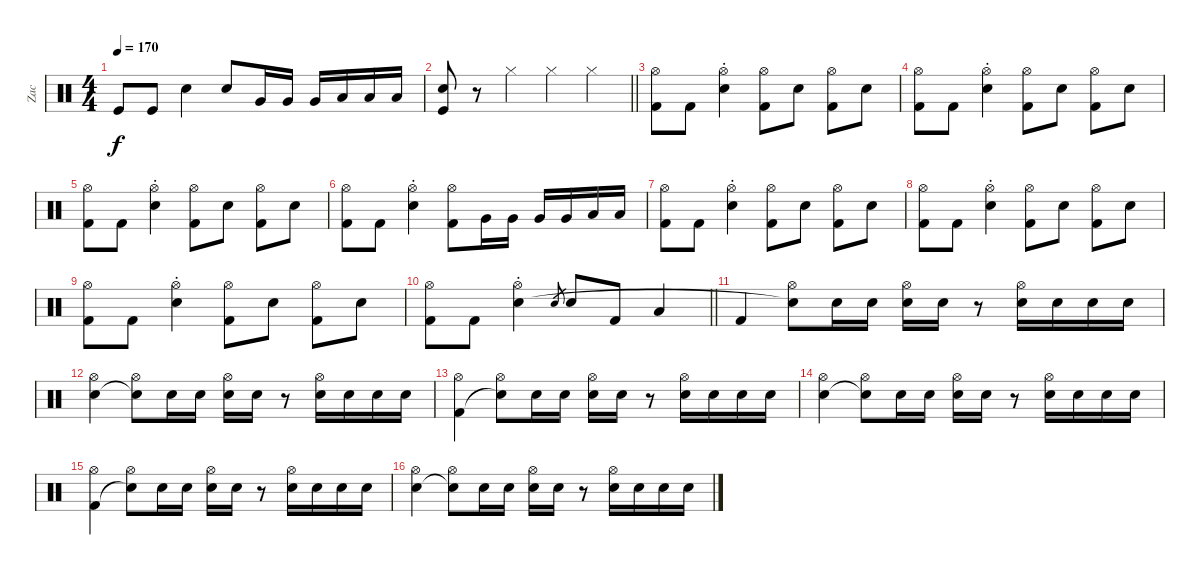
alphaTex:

\track ("Zac" "Zac") {instrument percussion}
\staff {score}
\articulation defaults
\ts (4 4)
\tempo 170
\clef neutral
\ks c "Kick (hit)".8{dy f} "Kick (hit)".8 "Electric Snare (hit)".4 "Electric Snare (hit)".8 "Very Low Tom (hit)".16 "Very Low Tom (hit)".16 "Very Low Tom (hit)".16 "Low Floor Tom (hit)".16 "Low Floor Tom (hit)".16 "Low Floor Tom (hit)".16
|
\barLineRight lightlight
("Electric Snare (hit)" "Kick (hit)").8 r.8 "Hi-Hat (closed)".4 "Hi-Hat (closed)".4 "Hi-Hat (closed)".4 |
\section ("" "")
("Hi-Hat (open)" "Kick (hit) 2").8 "Kick (hit) 2".8 ("Hi-Hat (open)"{st} "Electric Snare (hit)").4 ("Hi-Hat (open)" "Kick (hit) 2").8 "Electric Snare (hit)".8 ("Hi-Hat (open)" "Kick (hit) 2").8 "Electric Snare (hit)".8 |
("Hi-Hat (open)" "Kick (hit) 2").8 "Kick (hit) 2".8 ("Hi-Hat (open)"{st} "Electric Snare (hit)").4 ("Hi-Hat (open)" "Kick (hit) 2").8 "Electric Snare (hit)".8 ("Hi-Hat (open)" "Kick (hit) 2").8 "Electric Snare (hit)".8 |
("Hi-Hat (open)" "Kick (hit) 2").8 "Kick (hit) 2".8 ("Hi-Hat (open)"{st} "Electric Snare (hit)").4 ("Hi-Hat (open)" "Kick (hit) 2").8 "Electric Snare (hit)".8 ("Hi-Hat (open)" "Kick (hit) 2").8 "Electric Snare (hit)".8 |
("Hi-Hat (open)" "Kick (hit) 2").8 "Kick (hit) 2".8 ("Hi-Hat (open)"{st} "Electric Snare (hit)").4 ("Hi-Hat (open)" "Kick (hit) 2").8 "Very Low Tom (hit)".16 "Very Low Tom (hit)".16 "Very Low Tom (hit)".16 "Very Low Tom (hit)".16 "Low Floor Tom (hit)".16 "Low Floor Tom (hit)".16 |
("Hi-Hat (open)" "Kick (hit) 2").8 "Kick (hit) 2".8 ("Hi-Hat (open)"{st} "Electric Snare (hit)").4 ("Hi-Hat (open)" "Kick (hit) 2").8 "Electric Snare (hit)".8 ("Hi-Hat (open)" "Kick (hit) 2").8 "Electric Snare (hit)".8 |
("Hi-Hat (open)" "Kick (hit) 2").8 "Kick (hit) 2".8 ("Hi-Hat (open)"{st} "Electric Snare (hit)").4 ("Hi-Hat (open)" "Kick (hit) 2").8 "Electric Snare (hit)".8 ("Hi-Hat (open)" "Kick (hit) 2").8 "Electric Snare (hit)".8 |
("Hi-Hat (open)" "Kick (hit) 2").8 "Kick (hit) 2".8 ("Hi-Hat (open)"{st} "Electric Snare (hit)").4 ("Hi-Hat (open)" "Kick (hit) 2").8 "Electric Snare (hit)".8 ("Hi-Hat (open)" "Kick (hit) 2").8 "Electric Snare (hit)".8 |
\barLineRight lightlight
("Hi-Hat (open)" "Kick (hit) 2").8 "Kick (hit) 2".8 ("Hi-Hat (open)"{st} "Electric Snare (hit)").4 "Electric Snare (hit)".8{gr} "Electric Snare (hit)".8 "Kick (hit) 2".8 "Low Floor Tom (hit)".4 |
\section ("" "")
"Kick (hit) 2".4 ("Hi-Hat (open)" "Snare (hit)"{t}).8 "Electric Snare (hit)".16 "Electric Snare (hit)".16 ("Hi-Hat (open)" "Electric Snare (hit)").16 "Electric Snare (hit)".16 r.8 ("Hi-Hat (open)" "Electric Snare (hit)").16 "Electric Snare (hit)".16 "Electric Snare (hit)".16 "Electric Snare (hit)".16 |
("Hi-Hat (open)" "Electric Snare (hit)").4 ("Hi-Hat (open)" "Snare (hit)"{t}).8 "Electric Snare (hit)".16 "Electric Snare (hit)".16 ("Hi-Hat (open)" "Electric Snare (hit)").16 "Electric Snare (hit)".16 r.8 ("Hi-Hat (open)" "Electric Snare (hit)").16 "Electric Snare (hit)".16 "Electric Snare (hit)".16 "Electric Snare (hit)".16 |
("Hi-Hat (open)" "Kick (hit) 2").4 ("Hi-Hat (open)" "Snare (hit)"{t}).8 "Electric Snare (hit)".16 "Electric Snare (hit)".16 ("Hi-Hat (open)" "Electric Snare (hit)").16 "Electric Snare (hit)".16 r.8 ("Hi-Hat (open)" "Electric Snare (hit)").16 "Electric Snare (hit)".16 "Electric Snare (hit)".16 "Electric Snare (hit)".16 |
("Hi-Hat (open)" "Electric Snare (hit)").4 ("Hi-Hat (open)" "Snare (hit)"{t}).8 "Electric Snare (hit)".16 "Electric Snare (hit)".16 ("Hi-Hat (open)" "Electric Snare (hit)").16 "Electric Snare (hit)".16 r.8 ("Hi-Hat (open)" "Electric Snare (hit)").16 "Electric Snare (hit)".16 "Electric Snare (hit)".16 "Electric Snare (hit)".16 |
("Hi-Hat (open)" "Kick (hit) 2").4 ("Hi-Hat (open)" "Snare (hit)"{t}).8 "Electric Snare (hit)".16 "Electric Snare (hit)".16 ("Hi-Hat (open)" "Electric Snare (hit)").16 "Electric Snare (hit)".16 r.8 ("Hi-Hat (open)" "Electric Snare (hit)").16 "Electric Snare (hit)".16 "Electric Snare (hit)".16 "Electric Snare (hit)".16 |
("Hi-Hat (open)" "Electric Snare (hit)").4 ("Hi-Hat (open)" "Snare (hit)"{t}).8 "Electric Snare (hit)".16 "Electric Snare (hit)".16 ("Hi-Hat (open)" "Electric Snare (hit)").16 "Electric Snare (hit)".16 r.8 ("Hi-Hat (open)" "Electric Snare (hit)").16 "Electric Snare (hit)".16 "Electric Snare (hit)".16 "Electric Snare (hit)".16
